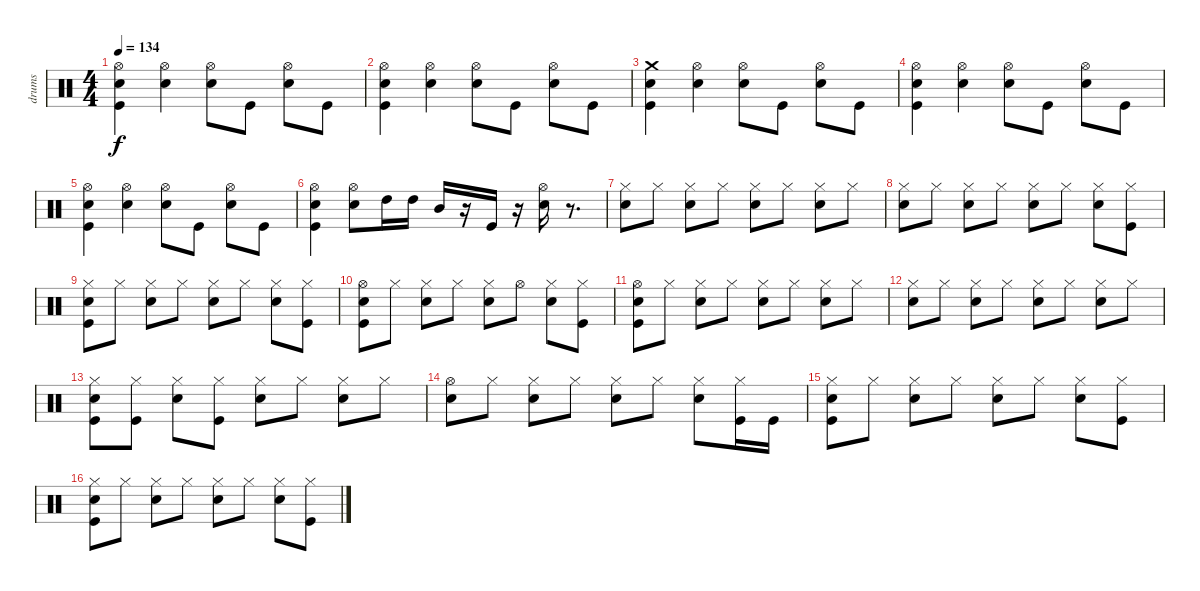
\track ("drums" "drums") {instrument percussion}
\staff {score}
\articulation defaults
\ts (4 4)
\tempo 134
\clef neutral
\ks c
("Hi-Hat (open)" "Snare (hit) 2" "Kick (hit)").4{dy f} ("Hi-Hat (open)" "Snare (hit) 2").4 ("Hi-Hat (open)" "Snare (hit) 2").8 "Kick (hit)".8 ("Hi-Hat (open)" "Snare (hit) 2").8 "Kick (hit)".8 |
("Hi-Hat (open)" "Snare (hit) 2" "Kick (hit)").4 ("Hi-Hat (open)" "Snare (hit) 2").4 ("Hi-Hat (open)" "Snare (hit) 2").8 "Kick (hit)".8 ("Hi-Hat (open)" "Snare (hit) 2").8 "Kick (hit)".8 |
("Crash medium (hit)" "Snare (hit) 2" "Kick (hit)").4 ("Hi-Hat (open)" "Snare (hit) 2").4 ("Hi-Hat (open)" "Snare (hit) 2").8 "Kick (hit)".8 ("Hi-Hat (open)" "Snare (hit) 2").8 "Kick (hit)".8 |
("Hi-Hat (open)" "Snare (hit) 2" "Kick (hit)").4 ("Hi-Hat (open)" "Snare (hit) 2").4 ("Hi-Hat (open)" "Snare (hit) 2").8 "Kick (hit)".8 ("Hi-Hat (open)" "Snare (hit) 2").8 "Kick (hit)".8 |
("Hi-Hat (open)" "Snare (hit) 2" "Kick (hit)").4 ("Hi-Hat (open)" "Snare (hit) 2").4 ("Hi-Hat (open)" "Snare (hit) 2").8 "Kick (hit)".8 ("Hi-Hat (open)" "Snare (hit) 2").8 "Kick (hit)".8 |
("Hi-Hat (open)" "Snare (hit) 2" "Kick (hit)").4 ("Hi-Hat (open)" "Snare (hit) 2").8 "High Tom (hit)".16 "High Tom (hit)".16 "Mid Tom (hit)".16 r.16 "Kick (hit)".16 r.16 ("Hi-Hat (open)" "Snare (hit) 2").16 r.8{d} |
("Hi-Hat (closed)" "Snare (hit) 2").8 "Hi-Hat (closed)".8 ("Hi-Hat (closed)" "Snare (hit) 2").8 "Hi-Hat (closed)".8 ("Hi-Hat (closed)" "Snare (hit) 2").8 "Hi-Hat (closed)".8 ("Hi-Hat (closed)" "Snare (hit) 2").8 "Hi-Hat (closed)".8 |
("Hi-Hat (closed)" "Snare (hit) 2").8 "Hi-Hat (closed)".8 ("Hi-Hat (closed)" "Snare (hit) 2").8 "Hi-Hat (closed)".8 ("Hi-Hat (closed)" "Snare (hit) 2").8 "Hi-Hat (closed)".8 ("Hi-Hat (closed)" "Snare (hit) 2").8 ("Hi-Hat (closed)" "Kick (hit)").8 |
("Hi-Hat (closed)" "Snare (hit) 2" "Kick (hit)").8 "Hi-Hat (closed)".8 ("Hi-Hat (closed)" "Snare (hit) 2").8 "Hi-Hat (closed)".8 ("Hi-Hat (closed)" "Snare (hit) 2").8 "Hi-Hat (closed)".8 ("Hi-Hat (closed)" "Snare (hit) 2").8 ("Hi-Hat (closed)" "Kick (hit)").8 |
("Hi-Hat (open)" "Snare (hit) 2" "Kick (hit)").8 "Hi-Hat (closed)".8 ("Hi-Hat (closed)" "Snare (hit) 2").8 "Hi-Hat (closed)".8 ("Hi-Hat (closed)" "Snare (hit) 2").8 "Hi-Hat (open)".8 ("Hi-Hat (closed)" "Snare (hit) 2").8 ("Hi-Hat (closed)" "Kick (hit)").8 |
("Hi-Hat (open)" "Snare (hit) 2" "Kick (hit)").8 "Hi-Hat (closed)".8 ("Hi-Hat (closed)" "Snare (hit) 2").8 "Hi-Hat (closed)".8 ("Hi-Hat (closed)" "Snare (hit) 2").8 "Hi-Hat (closed)".8 ("Hi-Hat (closed)" "Snare (hit) 2").8 "Hi-Hat (closed)".8 |
("Hi-Hat (closed)" "Snare (hit) 2").8 "Hi-Hat (closed)".8 ("Hi-Hat (closed)" "Snare (hit) 2").8 "Hi-Hat (closed)".8 ("Hi-Hat (closed)" "Snare (hit) 2").8 "Hi-Hat (closed)".8 ("Hi-Hat (closed)" "Snare (hit) 2").8 "Hi-Hat (closed)".8 |
("Hi-Hat (closed)" "Snare (hit) 2" "Kick (hit)").8 ("Hi-Hat (closed)" "Kick (hit)").8 ("Hi-Hat (closed)" "Snare (hit) 2").8 ("Hi-Hat (closed)" "Kick (hit)").8 ("Hi-Hat (closed)" "Snare (hit) 2").8 "Hi-Hat (closed)".8 ("Hi-Hat (closed)" "Snare (hit) 2").8 "Hi-Hat (closed)".8 |
("Hi-Hat (open)" "Snare (hit) 2").8 "Hi-Hat (closed)".8 ("Hi-Hat (closed)" "Snare (hit) 2").8 "Hi-Hat (closed)".8 ("Hi-Hat (closed)" "Snare (hit) 2").8 "Hi-Hat (closed)".8 ("Hi-Hat (closed)" "Snare (hit) 2").8 ("Hi-Hat (closed)" "Kick (hit)").16 "Kick (hit)".16 |
("Hi-Hat (closed)" "Snare (hit) 2" "Kick (hit)").8 "Hi-Hat (closed)".8 ("Hi-Hat (closed)" "Snare (hit) 2").8 "Hi-Hat (closed)".8 ("Hi-Hat (closed)" "Snare (hit) 2").8 "Hi-Hat (closed)".8 ("Hi-Hat (closed)" "Snare (hit) 2").8 ("Hi-Hat (closed)" "Kick (hit)").8 |
("Hi-Hat (closed)" "Snare (hit) 2" "Kick (hit)").8 "Hi-Hat (closed)".8 ("Hi-Hat (closed)" "Snare (hit) 2").8 "Hi-Hat (closed)".8 ("Hi-Hat (closed)" "Snare (hit) 2").8 "Hi-Hat (closed)".8 ("Hi-Hat (closed)" "Snare (hit) 2").8 ("Hi-Hat (closed)" "Kick (hit)").8
